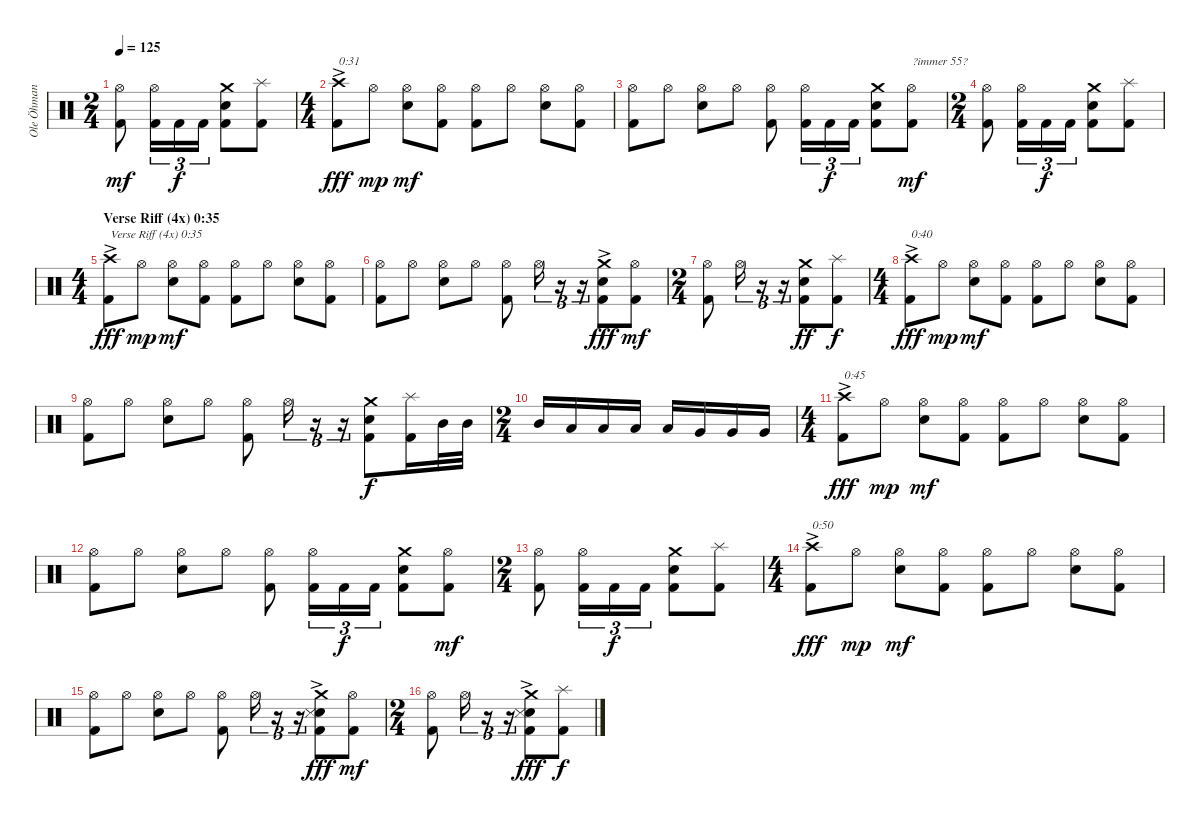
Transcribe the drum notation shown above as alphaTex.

\track ("Ole Öhman" "Ole Öhman") {instrument percussion}
\staff {score}
\articulation defaults
\ts (2 4)
\tempo 125
\clef neutral
\ks c
("Kick (hit) 2" "Hi-Hat (open)").8{dy mf} ("Kick (hit) 2" "Hi-Hat (open)").16{tu (3 2)} "Kick (hit) 2".16{tu (3 2) dy f} "Kick (hit) 2".16{tu (3 2)} ("Kick (hit) 2" "Electric Snare (hit)" "Crash medium (hit)").8 ("Kick (hit) 2" "Splash (hit)").8 |
\ts (4 4)
("Kick (hit) 2" "Crash high (hit)"{ac}).8{txt "0:31" dy fff} "Hi-Hat (open)".8{dy mp} ("Electric Snare (hit)" "Hi-Hat (open)").8{dy mf} ("Kick (hit) 2" "Hi-Hat (open)").8 ("Kick (hit) 2" "Hi-Hat (open)").8 "Hi-Hat (open)".8 ("Electric Snare (hit)" "Hi-Hat (open)").8 ("Kick (hit) 2" "Hi-Hat (open)").8 |
("Kick (hit) 2" "Hi-Hat (open)").8 "Hi-Hat (open)".8 ("Electric Snare (hit)" "Hi-Hat (open)").8 "Hi-Hat (open)".8 ("Kick (hit) 2" "Hi-Hat (open)").8 ("Kick (hit) 2" "Hi-Hat (open)").16{tu (3 2)} "Kick (hit) 2".16{tu (3 2) dy f} "Kick (hit) 2".16{tu (3 2)} ("Kick (hit) 2" "Electric Snare (hit)" "Crash medium (hit)").8 ("Kick (hit) 2" "Hi-Hat (open)").8{txt "?immer 55?" dy mf} |
\ts (2 4)
("Kick (hit) 2" "Hi-Hat (open)").8 ("Kick (hit) 2" "Hi-Hat (open)").16{tu (3 2)} "Kick (hit) 2".16{tu (3 2) dy f} "Kick (hit) 2".16{tu (3 2)} ("Kick (hit) 2" "Electric Snare (hit)" "Crash medium (hit)").8 ("Kick (hit) 2" "Splash (hit)").8 |
\ts (4 4)
\section ("" "Verse Riff (4x) 0:35")
("Kick (hit) 2" "Crash high (hit)"{ac}).8{txt "Verse Riff (4x) 0:35" dy fff} "Hi-Hat (open)".8{dy mp} ("Electric Snare (hit)" "Hi-Hat (open)").8{dy mf} ("Kick (hit) 2" "Hi-Hat (open)").8 ("Kick (hit) 2" "Hi-Hat (open)").8 "Hi-Hat (open)".8 ("Electric Snare (hit)" "Hi-Hat (open)").8 ("Kick (hit) 2" "Hi-Hat (open)").8 |
("Kick (hit) 2" "Hi-Hat (open)").8 "Hi-Hat (open)".8 ("Electric Snare (hit)" "Hi-Hat (open)").8 "Hi-Hat (open)".8 ("Kick (hit) 2" "Hi-Hat (open)").8 "Hi-Hat (open)".16{tu (3 2)} r.16{tu (3 2)} r.16{tu (3 2)} ("Kick (hit) 2" "Electric Snare (hit)" "Crash medium (hit)"{ac}).8{dy fff} ("Kick (hit) 2" "Hi-Hat (open)").8{dy mf} |
\ts (2 4)
("Kick (hit) 2" "Hi-Hat (open)").8 "Hi-Hat (open)".16{tu (3 2)} r.16{tu (3 2)} r.16{tu (3 2)} ("Kick (hit) 2" "Electric Snare (hit)" "Crash medium (hit)").8{dy ff} ("Kick (hit) 2" "Splash (hit)").8{dy f} |
\ts (4 4)
("Kick (hit) 2" "Crash high (hit)"{ac}).8{txt "0:40" dy fff} "Hi-Hat (open)".8{dy mp} ("Electric Snare (hit)" "Hi-Hat (open)").8{dy mf} ("Kick (hit) 2" "Hi-Hat (open)").8 ("Kick (hit) 2" "Hi-Hat (open)").8 "Hi-Hat (open)".8 ("Electric Snare (hit)" "Hi-Hat (open)").8 ("Kick (hit) 2" "Hi-Hat (open)").8 |
("Kick (hit) 2" "Hi-Hat (open)").8 "Hi-Hat (open)".8 ("Electric Snare (hit)" "Hi-Hat (open)").8 "Hi-Hat (open)".8 ("Kick (hit) 2" "Hi-Hat (open)").8 "Hi-Hat (open)".16{tu (3 2)} r.16{tu (3 2)} r.16{tu (3 2)} ("Kick (hit) 2" "Electric Snare (hit)" "Crash medium (hit)").8{dy f} ("Kick (hit) 2" "Splash (hit)").16 "Mid Tom (hit)".32 "Mid Tom (hit)".32 |
\ts (2 4)
"Mid Tom (hit)".16 "Low Tom (hit)".16 "Low Tom (hit)".16 "Low Tom (hit)".16 "Low Tom (hit)".16 "Very Low Tom (hit)".16 "Very Low Tom (hit)".16 "Very Low Tom (hit)".16 |
\ts (4 4)
("Kick (hit) 2" "Crash high (hit)"{ac}).8{txt "0:45" dy fff} "Hi-Hat (open)".8{dy mp} ("Electric Snare (hit)" "Hi-Hat (open)").8{dy mf} ("Kick (hit) 2" "Hi-Hat (open)").8 ("Kick (hit) 2" "Hi-Hat (open)").8 "Hi-Hat (open)".8 ("Electric Snare (hit)" "Hi-Hat (open)").8 ("Kick (hit) 2" "Hi-Hat (open)").8 |
("Kick (hit) 2" "Hi-Hat (open)").8 "Hi-Hat (open)".8 ("Electric Snare (hit)" "Hi-Hat (open)").8 "Hi-Hat (open)".8 ("Kick (hit) 2" "Hi-Hat (open)").8 ("Kick (hit) 2" "Hi-Hat (open)").16{tu (3 2)} "Kick (hit) 2".16{tu (3 2) dy f} "Kick (hit) 2".16{tu (3 2)} ("Kick (hit) 2" "Electric Snare (hit)" "Crash medium (hit)").8 ("Kick (hit) 2" "Hi-Hat (open)").8{dy mf} |
\ts (2 4)
("Kick (hit) 2" "Hi-Hat (open)").8 ("Kick (hit) 2" "Hi-Hat (open)").16{tu (3 2)} "Kick (hit) 2".16{tu (3 2) dy f} "Kick (hit) 2".16{tu (3 2)} ("Kick (hit) 2" "Electric Snare (hit)" "Crash medium (hit)").8 ("Kick (hit) 2" "Splash (hit)").8 |
\ts (4 4)
("Kick (hit) 2" "Crash high (hit)"{ac}).8{txt "0:50" dy fff} "Hi-Hat (open)".8{dy mp} ("Electric Snare (hit)" "Hi-Hat (open)").8{dy mf} ("Kick (hit) 2" "Hi-Hat (open)").8 ("Kick (hit) 2" "Hi-Hat (open)").8 "Hi-Hat (open)".8 ("Electric Snare (hit)" "Hi-Hat (open)").8 ("Kick (hit) 2" "Hi-Hat (open)").8 |
("Kick (hit) 2" "Hi-Hat (open)").8 "Hi-Hat (open)".8 ("Electric Snare (hit)" "Hi-Hat (open)").8 "Hi-Hat (open)".8 ("Kick (hit) 2" "Hi-Hat (open)").8 "Hi-Hat (open)".16{tu (3 2)} r.16{tu (3 2)} r.16{tu (3 2)} ("Kick (hit) 2" "Electric Snare (hit)"{ac} "Snare (side stick) 3" "Crash medium (hit)").8{dy fff} ("Kick (hit) 2" "Hi-Hat (open)").8{dy mf} |
\ts (2 4)
("Kick (hit) 2" "Hi-Hat (open)").8 "Hi-Hat (open)".16{tu (3 2)} r.16{tu (3 2)} r.16{tu (3 2)} ("Kick (hit) 2" "Electric Snare (hit)"{ac} "Snare (side stick) 3" "Crash medium (hit)").8{dy fff} ("Kick (hit) 2" "Splash (hit)").8{dy f}
